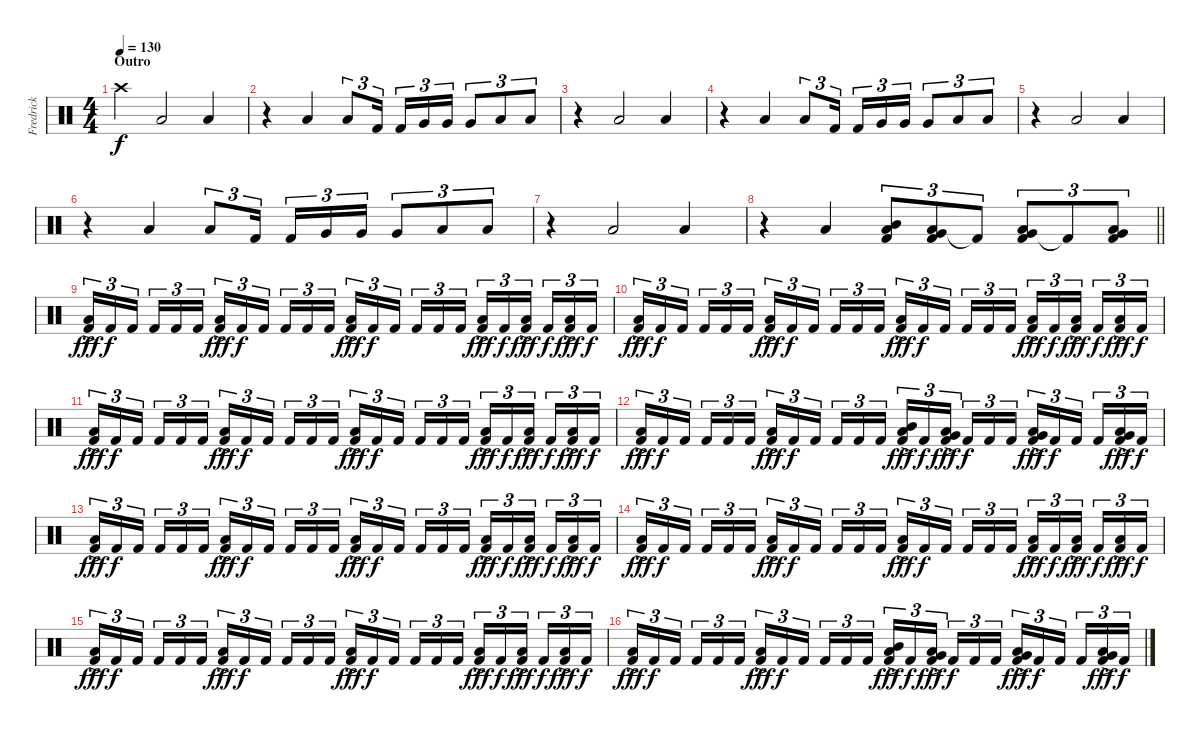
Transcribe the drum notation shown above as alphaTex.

\track ("Fredrick" "Fredrick") {instrument percussion}
\staff {score}
\articulation defaults
\ts (4 4)
\section ("" "Outro")
\tempo 130
\clef neutral
\ks c "Crash high (hit)".4{dy f} "Low Floor Tom (hit)".2 "Low Floor Tom (hit)".4
|
r.4 "Low Floor Tom (hit)".4 "Low Floor Tom (hit)".8{tu (3 2)} "Kick (hit) 2".16{tu (3 2) beam splitsecondary} "Kick (hit) 2".16{tu (3 2)} "Very Low Tom (hit)".16{tu (3 2)} "Very Low Tom (hit)".16{tu (3 2)} "Very Low Tom (hit)".8{tu (3 2)} "Low Floor Tom (hit)".8{tu (3 2)} "Low Floor Tom (hit)".8{tu (3 2)} |
r.4 "Low Floor Tom (hit)".2 "Low Floor Tom (hit)".4 |
r.4 "Low Floor Tom (hit)".4 "Low Floor Tom (hit)".8{tu (3 2)} "Kick (hit) 2".16{tu (3 2) beam splitsecondary} "Kick (hit) 2".16{tu (3 2)} "Very Low Tom (hit)".16{tu (3 2)} "Very Low Tom (hit)".16{tu (3 2)} "Very Low Tom (hit)".8{tu (3 2)} "Low Floor Tom (hit)".8{tu (3 2)} "Low Floor Tom (hit)".8{tu (3 2)} |
r.4 "Low Floor Tom (hit)".2 "Low Floor Tom (hit)".4 |
r.4 "Low Floor Tom (hit)".4 "Low Floor Tom (hit)".8{tu (3 2)} "Kick (hit) 2".16{tu (3 2) beam splitsecondary} "Kick (hit) 2".16{tu (3 2)} "Very Low Tom (hit)".16{tu (3 2)} "Very Low Tom (hit)".16{tu (3 2)} "Very Low Tom (hit)".8{tu (3 2)} "Low Floor Tom (hit)".8{tu (3 2)} "Low Floor Tom (hit)".8{tu (3 2)} |
r.4 "Low Floor Tom (hit)".2 "Low Floor Tom (hit)".4 |
\barLineRight lightlight
r.4 "Low Floor Tom (hit)".4 ("Mid Tom (hit)" "Low Tom (hit)" "Kick (hit) 2").8{tu (3 2)} ("Low Tom (hit)" "Very Low Tom (hit)" "Kick (hit) 2").8{tu (3 2)} "Kick (hit) 2"{t}.8{tu (3 2)} ("Very Low Tom (hit)" "Low Floor Tom (hit)" "Kick (hit) 2").8{tu (3 2)} "Kick (hit) 2"{t}.8{tu (3 2)} ("Very Low Tom (hit)" "Low Floor Tom (hit)" "Kick (hit) 2").8{tu (3 2)} |
("Low Floor Tom (hit)"{ac} "Kick (hit) 2").16{tu (3 2) dy fff} "Kick (hit) 2".16{tu (3 2) dy f} "Kick (hit) 2".16{tu (3 2) beam splitsecondary} "Kick (hit) 2".16{tu (3 2)} "Kick (hit) 2".16{tu (3 2)} "Kick (hit) 2".16{tu (3 2)} ("Low Floor Tom (hit)"{ac} "Kick (hit) 2").16{tu (3 2) dy fff} "Kick (hit) 2".16{tu (3 2) dy f} "Kick (hit) 2".16{tu (3 2) beam splitsecondary} "Kick (hit) 2".16{tu (3 2)} "Kick (hit) 2".16{tu (3 2)} "Kick (hit) 2".16{tu (3 2)} ("Low Floor Tom (hit)"{ac} "Kick (hit) 2").16{tu (3 2) dy fff} "Kick (hit) 2".16{tu (3 2) dy f} "Kick (hit) 2".16{tu (3 2) beam splitsecondary} "Kick (hit) 2".16{tu (3 2)} "Kick (hit) 2".16{tu (3 2)} "Kick (hit) 2".16{tu (3 2)} ("Low Floor Tom (hit)"{ac} "Kick (hit) 2").16{tu (3 2) dy fff} "Kick (hit) 2".16{tu (3 2) dy f} ("Low Floor Tom (hit)"{ac} "Kick (hit) 2").16{tu (3 2) dy fff beam splitsecondary} "Kick (hit) 2".16{tu (3 2) dy f} ("Low Floor Tom (hit)"{ac} "Kick (hit) 2").16{tu (3 2) dy fff} "Kick (hit) 2".16{tu (3 2) dy f} |
("Low Floor Tom (hit)"{ac} "Kick (hit) 2").16{tu (3 2) dy fff} "Kick (hit) 2".16{tu (3 2) dy f} "Kick (hit) 2".16{tu (3 2) beam splitsecondary} "Kick (hit) 2".16{tu (3 2)} "Kick (hit) 2".16{tu (3 2)} "Kick (hit) 2".16{tu (3 2)} ("Low Floor Tom (hit)"{ac} "Kick (hit) 2").16{tu (3 2) dy fff} "Kick (hit) 2".16{tu (3 2) dy f} "Kick (hit) 2".16{tu (3 2) beam splitsecondary} "Kick (hit) 2".16{tu (3 2)} "Kick (hit) 2".16{tu (3 2)} "Kick (hit) 2".16{tu (3 2)} ("Low Floor Tom (hit)"{ac} "Kick (hit) 2").16{tu (3 2) dy fff} "Kick (hit) 2".16{tu (3 2) dy f} "Kick (hit) 2".16{tu (3 2) beam splitsecondary} "Kick (hit) 2".16{tu (3 2)} "Kick (hit) 2".16{tu (3 2)} "Kick (hit) 2".16{tu (3 2)} ("Low Floor Tom (hit)"{ac} "Kick (hit) 2").16{tu (3 2) dy fff} "Kick (hit) 2".16{tu (3 2) dy f} ("Low Floor Tom (hit)"{ac} "Kick (hit) 2").16{tu (3 2) dy fff beam splitsecondary} "Kick (hit) 2".16{tu (3 2) dy f} ("Low Floor Tom (hit)"{ac} "Kick (hit) 2").16{tu (3 2) dy fff} "Kick (hit) 2".16{tu (3 2) dy f} |
("Low Floor Tom (hit)"{ac} "Kick (hit) 2").16{tu (3 2) dy fff} "Kick (hit) 2".16{tu (3 2) dy f} "Kick (hit) 2".16{tu (3 2) beam splitsecondary} "Kick (hit) 2".16{tu (3 2)} "Kick (hit) 2".16{tu (3 2)} "Kick (hit) 2".16{tu (3 2)} ("Low Floor Tom (hit)"{ac} "Kick (hit) 2").16{tu (3 2) dy fff} "Kick (hit) 2".16{tu (3 2) dy f} "Kick (hit) 2".16{tu (3 2) beam splitsecondary} "Kick (hit) 2".16{tu (3 2)} "Kick (hit) 2".16{tu (3 2)} "Kick (hit) 2".16{tu (3 2)} ("Low Floor Tom (hit)"{ac} "Kick (hit) 2").16{tu (3 2) dy fff} "Kick (hit) 2".16{tu (3 2) dy f} "Kick (hit) 2".16{tu (3 2) beam splitsecondary} "Kick (hit) 2".16{tu (3 2)} "Kick (hit) 2".16{tu (3 2)} "Kick (hit) 2".16{tu (3 2)} ("Low Floor Tom (hit)"{ac} "Kick (hit) 2").16{tu (3 2) dy fff} "Kick (hit) 2".16{tu (3 2) dy f} ("Low Floor Tom (hit)"{ac} "Kick (hit) 2").16{tu (3 2) dy fff beam splitsecondary} "Kick (hit) 2".16{tu (3 2) dy f} ("Low Floor Tom (hit)"{ac} "Kick (hit) 2").16{tu (3 2) dy fff} "Kick (hit) 2".16{tu (3 2) dy f} |
("Low Floor Tom (hit)"{ac} "Kick (hit) 2").16{tu (3 2) dy fff} "Kick (hit) 2".16{tu (3 2) dy f} "Kick (hit) 2".16{tu (3 2) beam splitsecondary} "Kick (hit) 2".16{tu (3 2)} "Kick (hit) 2".16{tu (3 2)} "Kick (hit) 2".16{tu (3 2)} ("Low Floor Tom (hit)"{ac} "Kick (hit) 2").16{tu (3 2) dy fff} "Kick (hit) 2".16{tu (3 2) dy f} "Kick (hit) 2".16{tu (3 2) beam splitsecondary} "Kick (hit) 2".16{tu (3 2)} "Kick (hit) 2".16{tu (3 2)} "Kick (hit) 2".16{tu (3 2)} ("Mid Tom (hit)"{ac} "Low Tom (hit)"{ac} "Kick (hit) 2").16{tu (3 2) dy fff} "Kick (hit) 2".16{tu (3 2) dy f} ("Low Tom (hit)"{ac} "Very Low Tom (hit)"{ac} "Kick (hit) 2").16{tu (3 2) dy fff beam splitsecondary} "Kick (hit) 2".16{tu (3 2) dy f} "Kick (hit) 2".16{tu (3 2)} "Kick (hit) 2".16{tu (3 2)} ("Very Low Tom (hit)"{ac} "Low Floor Tom (hit)"{ac} "Kick (hit) 2").16{tu (3 2) dy fff} "Kick (hit) 2".16{tu (3 2) dy f} "Kick (hit) 2".16{tu (3 2) beam splitsecondary} "Kick (hit) 2".16{tu (3 2)} ("Very Low Tom (hit)"{ac} "Low Floor Tom (hit)"{ac} "Kick (hit) 2").16{tu (3 2) dy fff} "Kick (hit) 2".16{tu (3 2) dy f} |
("Low Floor Tom (hit)"{ac} "Kick (hit) 2").16{tu (3 2) dy fff} "Kick (hit) 2".16{tu (3 2) dy f} "Kick (hit) 2".16{tu (3 2) beam splitsecondary} "Kick (hit) 2".16{tu (3 2)} "Kick (hit) 2".16{tu (3 2)} "Kick (hit) 2".16{tu (3 2)} ("Low Floor Tom (hit)"{ac} "Kick (hit) 2").16{tu (3 2) dy fff} "Kick (hit) 2".16{tu (3 2) dy f} "Kick (hit) 2".16{tu (3 2) beam splitsecondary} "Kick (hit) 2".16{tu (3 2)} "Kick (hit) 2".16{tu (3 2)} "Kick (hit) 2".16{tu (3 2)} ("Low Floor Tom (hit)"{ac} "Kick (hit) 2").16{tu (3 2) dy fff} "Kick (hit) 2".16{tu (3 2) dy f} "Kick (hit) 2".16{tu (3 2) beam splitsecondary} "Kick (hit) 2".16{tu (3 2)} "Kick (hit) 2".16{tu (3 2)} "Kick (hit) 2".16{tu (3 2)} ("Low Floor Tom (hit)"{ac} "Kick (hit) 2").16{tu (3 2) dy fff} "Kick (hit) 2".16{tu (3 2) dy f} ("Low Floor Tom (hit)"{ac} "Kick (hit) 2").16{tu (3 2) dy fff beam splitsecondary} "Kick (hit) 2".16{tu (3 2) dy f} ("Low Floor Tom (hit)"{ac} "Kick (hit) 2").16{tu (3 2) dy fff} "Kick (hit) 2".16{tu (3 2) dy f} |
("Low Floor Tom (hit)"{ac} "Kick (hit) 2").16{tu (3 2) dy fff} "Kick (hit) 2".16{tu (3 2) dy f} "Kick (hit) 2".16{tu (3 2) beam splitsecondary} "Kick (hit) 2".16{tu (3 2)} "Kick (hit) 2".16{tu (3 2)} "Kick (hit) 2".16{tu (3 2)} ("Low Floor Tom (hit)"{ac} "Kick (hit) 2").16{tu (3 2) dy fff} "Kick (hit) 2".16{tu (3 2) dy f} "Kick (hit) 2".16{tu (3 2) beam splitsecondary} "Kick (hit) 2".16{tu (3 2)} "Kick (hit) 2".16{tu (3 2)} "Kick (hit) 2".16{tu (3 2)} ("Low Floor Tom (hit)"{ac} "Kick (hit) 2").16{tu (3 2) dy fff} "Kick (hit) 2".16{tu (3 2) dy f} "Kick (hit) 2".16{tu (3 2) beam splitsecondary} "Kick (hit) 2".16{tu (3 2)} "Kick (hit) 2".16{tu (3 2)} "Kick (hit) 2".16{tu (3 2)} ("Low Floor Tom (hit)"{ac} "Kick (hit) 2").16{tu (3 2) dy fff} "Kick (hit) 2".16{tu (3 2) dy f} ("Low Floor Tom (hit)"{ac} "Kick (hit) 2").16{tu (3 2) dy fff beam splitsecondary} "Kick (hit) 2".16{tu (3 2) dy f} ("Low Floor Tom (hit)"{ac} "Kick (hit) 2").16{tu (3 2) dy fff} "Kick (hit) 2".16{tu (3 2) dy f} |
("Low Floor Tom (hit)"{ac} "Kick (hit) 2").16{tu (3 2) dy fff} "Kick (hit) 2".16{tu (3 2) dy f} "Kick (hit) 2".16{tu (3 2) beam splitsecondary} "Kick (hit) 2".16{tu (3 2)} "Kick (hit) 2".16{tu (3 2)} "Kick (hit) 2".16{tu (3 2)} ("Low Floor Tom (hit)"{ac} "Kick (hit) 2").16{tu (3 2) dy fff} "Kick (hit) 2".16{tu (3 2) dy f} "Kick (hit) 2".16{tu (3 2) beam splitsecondary} "Kick (hit) 2".16{tu (3 2)} "Kick (hit) 2".16{tu (3 2)} "Kick (hit) 2".16{tu (3 2)} ("Low Floor Tom (hit)"{ac} "Kick (hit) 2").16{tu (3 2) dy fff} "Kick (hit) 2".16{tu (3 2) dy f} "Kick (hit) 2".16{tu (3 2) beam splitsecondary} "Kick (hit) 2".16{tu (3 2)} "Kick (hit) 2".16{tu (3 2)} "Kick (hit) 2".16{tu (3 2)} ("Low Floor Tom (hit)"{ac} "Kick (hit) 2").16{tu (3 2) dy fff} "Kick (hit) 2".16{tu (3 2) dy f} ("Low Floor Tom (hit)"{ac} "Kick (hit) 2").16{tu (3 2) dy fff beam splitsecondary} "Kick (hit) 2".16{tu (3 2) dy f} ("Low Floor Tom (hit)"{ac} "Kick (hit) 2").16{tu (3 2) dy fff} "Kick (hit) 2".16{tu (3 2) dy f} |
("Low Floor Tom (hit)"{ac} "Kick (hit) 2").16{tu (3 2) dy fff} "Kick (hit) 2".16{tu (3 2) dy f} "Kick (hit) 2".16{tu (3 2) beam splitsecondary} "Kick (hit) 2".16{tu (3 2)} "Kick (hit) 2".16{tu (3 2)} "Kick (hit) 2".16{tu (3 2)} ("Low Floor Tom (hit)"{ac} "Kick (hit) 2").16{tu (3 2) dy fff} "Kick (hit) 2".16{tu (3 2) dy f} "Kick (hit) 2".16{tu (3 2) beam splitsecondary} "Kick (hit) 2".16{tu (3 2)} "Kick (hit) 2".16{tu (3 2)} "Kick (hit) 2".16{tu (3 2)} ("Mid Tom (hit)"{ac} "Low Tom (hit)"{ac} "Kick (hit) 2").16{tu (3 2) dy fff} "Kick (hit) 2".16{tu (3 2) dy f} ("Low Tom (hit)"{ac} "Very Low Tom (hit)"{ac} "Kick (hit) 2").16{tu (3 2) dy fff beam splitsecondary} "Kick (hit) 2".16{tu (3 2) dy f} "Kick (hit) 2".16{tu (3 2)} "Kick (hit) 2".16{tu (3 2)} ("Very Low Tom (hit)"{ac} "Low Floor Tom (hit)"{ac} "Kick (hit) 2").16{tu (3 2) dy fff} "Kick (hit) 2".16{tu (3 2) dy f} "Kick (hit) 2".16{tu (3 2) beam splitsecondary} "Kick (hit) 2".16{tu (3 2)} ("Very Low Tom (hit)"{ac} "Low Floor Tom (hit)"{ac} "Kick (hit) 2").16{tu (3 2) dy fff} "Kick (hit) 2".16{tu (3 2) dy f}
